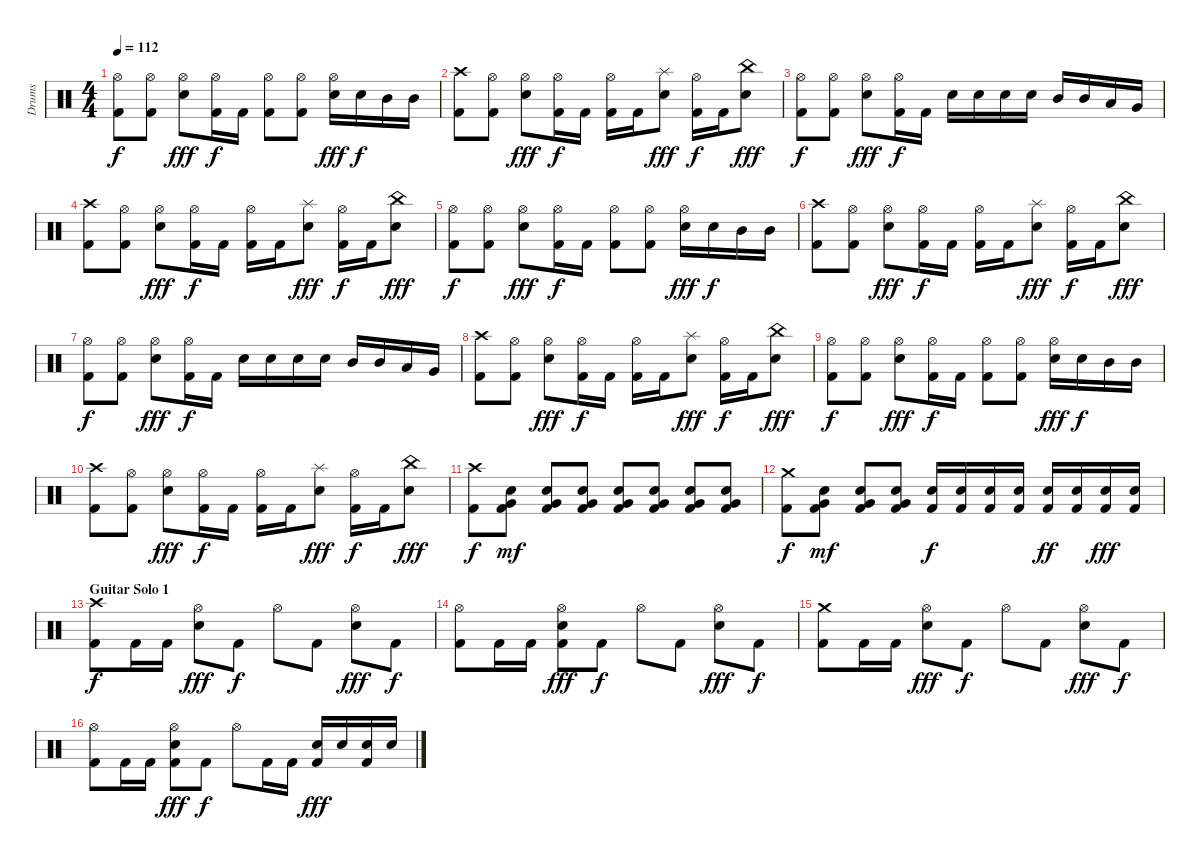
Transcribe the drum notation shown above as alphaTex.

\track ("Drums" "Drums") {instrument percussion}
\staff {score}
\articulation defaults
\ts (4 4)
\tempo 112
\clef neutral
\ks c
("Hi-Hat (open)" "Kick (hit) 2").8{dy f} ("Hi-Hat (open)" "Kick (hit) 2").8 ("Hi-Hat (open)" "Snare (hit) 2").8{dy fff} ("Hi-Hat (open)" "Kick (hit) 2").16{dy f} "Kick (hit) 2".16 ("Hi-Hat (open)" "Kick (hit) 2").8 ("Hi-Hat (open)" "Kick (hit) 2").8 ("Hi-Hat (open)" "Snare (hit) 2").16{dy fff} "Snare (hit) 2".16{dy f} "Mid Tom (hit)".16 "Mid Tom (hit)".16 |
("Crash high (hit)" "Kick (hit) 2").8 ("Hi-Hat (open)" "Kick (hit) 2").8 ("Hi-Hat (open)" "Snare (hit) 2").8{dy fff} ("Hi-Hat (open)" "Kick (hit) 2").16{dy f} "Kick (hit) 2".16 ("Hi-Hat (open)" "Kick (hit) 2").16 "Kick (hit) 2".16 ("Splash (hit)" "Snare (hit) 2").8{dy fff} ("Hi-Hat (open)" "Kick (hit) 2").16{dy f} "Kick (hit) 2".16 ("China (hit)" "Snare (hit) 2").8{dy fff} |
("Hi-Hat (open)" "Kick (hit) 2").8{dy f} ("Hi-Hat (open)" "Kick (hit) 2").8 ("Hi-Hat (open)" "Snare (hit) 2").8{dy fff} ("Hi-Hat (open)" "Kick (hit) 2").16{dy f} "Kick (hit) 2".16 "Snare (hit) 2".16 "Snare (hit) 2".16 "Snare (hit) 2".16 "Snare (hit) 2".16 "Mid Tom (hit)".16 "Mid Tom (hit)".16 "Low Tom (hit)".16 "Very Low Tom (hit)".16 |
("Crash high (hit)" "Kick (hit) 2").8 ("Hi-Hat (open)" "Kick (hit) 2").8 ("Hi-Hat (open)" "Snare (hit) 2").8{dy fff} ("Hi-Hat (open)" "Kick (hit) 2").16{dy f} "Kick (hit) 2".16 ("Hi-Hat (open)" "Kick (hit) 2").16 "Kick (hit) 2".16 ("Splash (hit)" "Snare (hit) 2").8{dy fff} ("Hi-Hat (open)" "Kick (hit) 2").16{dy f} "Kick (hit) 2".16 ("China (hit)" "Snare (hit) 2").8{dy fff} |
("Hi-Hat (open)" "Kick (hit) 2").8{dy f} ("Hi-Hat (open)" "Kick (hit) 2").8 ("Hi-Hat (open)" "Snare (hit) 2").8{dy fff} ("Hi-Hat (open)" "Kick (hit) 2").16{dy f} "Kick (hit) 2".16 ("Hi-Hat (open)" "Kick (hit) 2").8 ("Hi-Hat (open)" "Kick (hit) 2").8 ("Hi-Hat (open)" "Snare (hit) 2").16{dy fff} "Snare (hit) 2".16{dy f} "Mid Tom (hit)".16 "Mid Tom (hit)".16 |
("Crash high (hit)" "Kick (hit) 2").8 ("Hi-Hat (open)" "Kick (hit) 2").8 ("Hi-Hat (open)" "Snare (hit) 2").8{dy fff} ("Hi-Hat (open)" "Kick (hit) 2").16{dy f} "Kick (hit) 2".16 ("Hi-Hat (open)" "Kick (hit) 2").16 "Kick (hit) 2".16 ("Splash (hit)" "Snare (hit) 2").8{dy fff} ("Hi-Hat (open)" "Kick (hit) 2").16{dy f} "Kick (hit) 2".16 ("China (hit)" "Snare (hit) 2").8{dy fff} |
("Hi-Hat (open)" "Kick (hit) 2").8{dy f} ("Hi-Hat (open)" "Kick (hit) 2").8 ("Hi-Hat (open)" "Snare (hit) 2").8{dy fff} ("Hi-Hat (open)" "Kick (hit) 2").16{dy f} "Kick (hit) 2".16 "Snare (hit) 2".16 "Snare (hit) 2".16 "Snare (hit) 2".16 "Snare (hit) 2".16 "Mid Tom (hit)".16 "Mid Tom (hit)".16 "Low Tom (hit)".16 "Very Low Tom (hit)".16 |
("Crash high (hit)" "Kick (hit) 2").8 ("Hi-Hat (open)" "Kick (hit) 2").8 ("Hi-Hat (open)" "Snare (hit) 2").8{dy fff} ("Hi-Hat (open)" "Kick (hit) 2").16{dy f} "Kick (hit) 2".16 ("Hi-Hat (open)" "Kick (hit) 2").16 "Kick (hit) 2".16 ("Splash (hit)" "Snare (hit) 2").8{dy fff} ("Hi-Hat (open)" "Kick (hit) 2").16{dy f} "Kick (hit) 2".16 ("China (hit)" "Snare (hit) 2").8{dy fff} |
("Hi-Hat (open)" "Kick (hit) 2").8{dy f} ("Hi-Hat (open)" "Kick (hit) 2").8 ("Hi-Hat (open)" "Snare (hit) 2").8{dy fff} ("Hi-Hat (open)" "Kick (hit) 2").16{dy f} "Kick (hit) 2".16 ("Hi-Hat (open)" "Kick (hit) 2").8 ("Hi-Hat (open)" "Kick (hit) 2").8 ("Hi-Hat (open)" "Snare (hit) 2").16{dy fff} "Snare (hit) 2".16{dy f} "Mid Tom (hit)".16 "Mid Tom (hit)".16 |
("Crash high (hit)" "Kick (hit) 2").8 ("Hi-Hat (open)" "Kick (hit) 2").8 ("Hi-Hat (open)" "Snare (hit) 2").8{dy fff} ("Hi-Hat (open)" "Kick (hit) 2").16{dy f} "Kick (hit) 2".16 ("Hi-Hat (open)" "Kick (hit) 2").16 "Kick (hit) 2".16 ("Splash (hit)" "Snare (hit) 2").8{dy fff} ("Hi-Hat (open)" "Kick (hit) 2").16{dy f} "Kick (hit) 2".16 ("China (hit)" "Snare (hit) 2").8{dy fff} |
("Crash high (hit)" "Kick (hit) 2").8{dy f} ("Snare (hit) 2" "Very Low Tom (hit)" "Kick (hit) 2").8{dy mf} ("Snare (hit) 2" "Very Low Tom (hit)" "Kick (hit) 2").8 ("Snare (hit) 2" "Very Low Tom (hit)" "Kick (hit) 2").8 ("Snare (hit) 2" "Very Low Tom (hit)" "Kick (hit) 2").8 ("Snare (hit) 2" "Very Low Tom (hit)" "Kick (hit) 2").8 ("Snare (hit) 2" "Very Low Tom (hit)" "Kick (hit) 2").8 ("Snare (hit) 2" "Very Low Tom (hit)" "Kick (hit) 2").8 |
("Crash medium (hit)" "Kick (hit) 2").8{dy f} ("Snare (hit) 2" "Very Low Tom (hit)" "Kick (hit) 2").8{dy mf} ("Snare (hit) 2" "Very Low Tom (hit)" "Kick (hit) 2").8 ("Snare (hit) 2" "Very Low Tom (hit)" "Kick (hit) 2").8 ("Snare (hit) 2" "Kick (hit) 2").16{dy f} ("Snare (hit) 2" "Kick (hit) 2").16 ("Snare (hit) 2" "Kick (hit) 2").16 ("Snare (hit) 2" "Kick (hit) 2").16 ("Snare (hit) 2" "Kick (hit) 2").16{dy ff} ("Snare (hit) 2" "Kick (hit) 2").16 ("Snare (hit) 2" "Kick (hit) 2").16{dy fff} ("Snare (hit) 2" "Kick (hit) 2").16 |
\section ("" "Guitar Solo 1")
("Crash high (hit)" "Kick (hit) 2").8{dy f} "Kick (hit) 2".16 "Kick (hit) 2".16 ("Hi-Hat (open)" "Snare (hit) 2").8{dy fff} "Kick (hit) 2".8{dy f} "Hi-Hat (open)".8 "Kick (hit) 2".8 ("Hi-Hat (open)" "Snare (hit) 2").8{dy fff} "Kick (hit) 2".8{dy f} |
("Hi-Hat (open)" "Kick (hit) 2").8 "Kick (hit) 2".16 "Kick (hit) 2".16 ("Hi-Hat (open)" "Snare (hit) 2" "Kick (hit) 2").8{dy fff} "Kick (hit) 2".8{dy f} "Hi-Hat (open)".8 "Kick (hit) 2".8 ("Hi-Hat (open)" "Snare (hit) 2").8{dy fff} "Kick (hit) 2".8{dy f} |
("Crash medium (hit)" "Kick (hit) 2").8 "Kick (hit) 2".16 "Kick (hit) 2".16 ("Hi-Hat (open)" "Snare (hit) 2").8{dy fff} "Kick (hit) 2".8{dy f} "Hi-Hat (open)".8 "Kick (hit) 2".8 ("Hi-Hat (open)" "Snare (hit) 2").8{dy fff} "Kick (hit) 2".8{dy f} |
("Hi-Hat (open)" "Kick (hit) 2").8 "Kick (hit) 2".16 "Kick (hit) 2".16 ("Hi-Hat (open)" "Snare (hit) 2" "Kick (hit) 2").8{dy fff} "Kick (hit) 2".8{dy f} "Hi-Hat (open)".8 "Kick (hit) 2".16 "Kick (hit) 2".16 ("Snare (hit) 2" "Kick (hit) 2").16{dy fff} "Snare (hit) 2".16 ("Snare (hit) 2" "Kick (hit) 2").16 "Snare (hit) 2".16
